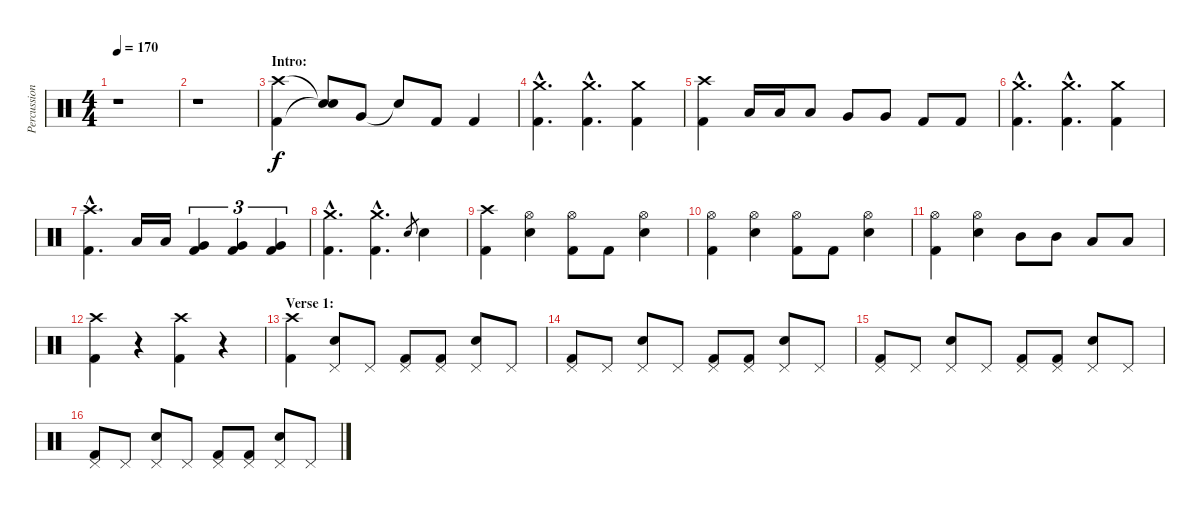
\track ("Percussion" "Percussion") {instrument percussion}
\staff {score}
\articulation defaults
\ts (4 4)
\tempo 170
\clef neutral
\ks c
r.1{dy f} |
r.1 |
\section ("" "Intro:")
("Crash high (hit)" "Kick (hit) 2").4 ("Snare (hit)"{t} "Snare (hit)"{t}).8 "Very Low Tom (hit)".8 "Snare (hit)"{t}.8 "Kick (hit) 2".8 "Kick (hit) 2".4 |
("Crash medium (hit)"{hac} "Kick (hit) 2"{hac}).4{d} ("Crash medium (hit)"{hac} "Kick (hit) 2"{hac}).4{d} ("Crash medium (hit)" "Kick (hit) 2").4 |
("Crash high (hit)" "Kick (hit) 2").4 "Low Tom (hit)".16 "Low Tom (hit)".16 "Low Tom (hit)".8 "Very Low Tom (hit)".8 "Very Low Tom (hit)".8 "Kick (hit) 2".8 "Kick (hit) 2".8 |
("Crash medium (hit)"{hac} "Kick (hit) 2"{hac}).4{d} ("Crash medium (hit)"{hac} "Kick (hit) 2"{hac}).4{d} ("Crash medium (hit)" "Kick (hit) 2").4 |
("Crash high (hit)"{hac} "Kick (hit) 2"{hac}).4{d} "Low Tom (hit)".16 "Low Tom (hit)".16 ("Very Low Tom (hit)" "Kick (hit) 2").4{tu (3 2)} ("Very Low Tom (hit)" "Kick (hit) 2").4{tu (3 2)} ("Very Low Tom (hit)" "Kick (hit) 2").4{tu (3 2)} |
("Crash medium (hit)"{hac} "Kick (hit) 2"{hac}).4{d} ("Crash medium (hit)"{hac} "Kick (hit) 2"{hac}).4{d} "Snare (hit) 2".8{gr} "Snare (hit) 2".4 |
("Crash high (hit)" "Kick (hit) 2").4 ("Hi-Hat (open)" "Snare (hit) 2").4 ("Hi-Hat (open)" "Kick (hit) 2").8 "Kick (hit) 2".8 ("Hi-Hat (open)" "Snare (hit) 2").4 |
("Hi-Hat (open)" "Kick (hit) 2").4 ("Hi-Hat (open)" "Snare (hit) 2").4 ("Hi-Hat (open)" "Kick (hit) 2").8 "Kick (hit) 2".8 ("Hi-Hat (open)" "Snare (hit) 2").4 |
("Hi-Hat (open)" "Kick (hit) 2").4 ("Hi-Hat (open)" "Snare (hit) 2").4 "Mid Tom (hit)".8 "Mid Tom (hit)".8 "Low Tom (hit)".8 "Low Tom (hit)".8 |
("Crash high (hit)" "Kick (hit) 2").4 r.4 ("Crash high (hit)" "Kick (hit) 2").4 r.4 |
\section ("" "Verse 1:")
("Crash high (hit)" "Kick (hit) 2").4 ("Pedal Hi-Hat (hit)" "Snare (hit) 2").8 "Pedal Hi-Hat (hit)".8 ("Pedal Hi-Hat (hit)" "Kick (hit) 2").8 ("Pedal Hi-Hat (hit)" "Kick (hit) 2").8 ("Pedal Hi-Hat (hit)" "Snare (hit) 2").8 "Pedal Hi-Hat (hit)".8 |
("Pedal Hi-Hat (hit)" "Kick (hit) 2").8 "Pedal Hi-Hat (hit)".8 ("Pedal Hi-Hat (hit)" "Snare (hit) 2").8 "Pedal Hi-Hat (hit)".8 ("Pedal Hi-Hat (hit)" "Kick (hit) 2").8 ("Pedal Hi-Hat (hit)" "Kick (hit) 2").8 ("Pedal Hi-Hat (hit)" "Snare (hit) 2").8 "Pedal Hi-Hat (hit)".8 |
("Pedal Hi-Hat (hit)" "Kick (hit) 2").8 "Pedal Hi-Hat (hit)".8 ("Pedal Hi-Hat (hit)" "Snare (hit) 2").8 "Pedal Hi-Hat (hit)".8 ("Pedal Hi-Hat (hit)" "Kick (hit) 2").8 ("Pedal Hi-Hat (hit)" "Kick (hit) 2").8 ("Pedal Hi-Hat (hit)" "Snare (hit) 2").8 "Pedal Hi-Hat (hit)".8 |
("Pedal Hi-Hat (hit)" "Kick (hit) 2").8 "Pedal Hi-Hat (hit)".8 ("Pedal Hi-Hat (hit)" "Snare (hit) 2").8 "Pedal Hi-Hat (hit)".8 ("Pedal Hi-Hat (hit)" "Kick (hit) 2").8 ("Pedal Hi-Hat (hit)" "Kick (hit) 2").8 ("Pedal Hi-Hat (hit)" "Snare (hit) 2").8 "Pedal Hi-Hat (hit)".8
